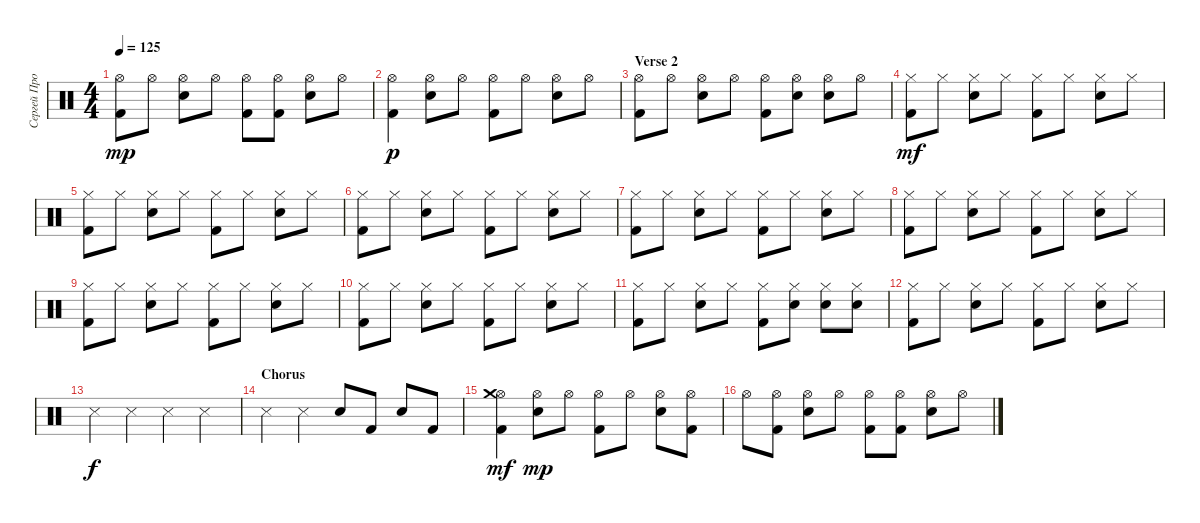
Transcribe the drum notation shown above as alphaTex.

\track ("Сергей Прокофьев (Percussion)" "Сергей Про") {instrument percussion}
\staff {score}
\articulation defaults
\ts (4 4)
\tempo 125
\clef neutral
\ks c
("Hi-Hat (open)" "Kick (hit) 2").8{dy mp} "Hi-Hat (open)".8 ("Hi-Hat (open)" "Snare (hit) 2").8 "Hi-Hat (open)".8 ("Hi-Hat (open)" "Kick (hit) 2").8 ("Hi-Hat (open)" "Kick (hit) 2").8 ("Hi-Hat (open)" "Snare (hit) 2").8 "Hi-Hat (open)".8 |
("Hi-Hat (open)" "Kick (hit) 2").4{dy p} ("Hi-Hat (open)" "Snare (hit) 2").8 "Hi-Hat (open)".8 ("Hi-Hat (open)" "Kick (hit) 2").8 "Hi-Hat (open)".8 ("Hi-Hat (open)" "Snare (hit) 2").8 "Hi-Hat (open)".8 |
\section ("" "Verse 2")
("Hi-Hat (open)" "Kick (hit) 2").8 "Hi-Hat (open)".8 ("Hi-Hat (open)" "Snare (hit) 2").8 "Hi-Hat (open)".8 ("Hi-Hat (open)" "Kick (hit) 2").8 ("Hi-Hat (open)" "Snare (hit) 2").8 ("Hi-Hat (open)" "Snare (hit) 2").8 "Hi-Hat (open)".8 |
("Hi-Hat (closed)" "Kick (hit) 2").8{dy mf} "Hi-Hat (closed)".8 ("Hi-Hat (closed)" "Snare (hit) 2").8 "Hi-Hat (closed)".8 ("Hi-Hat (closed)" "Kick (hit) 2").8 "Hi-Hat (closed)".8 ("Hi-Hat (closed)" "Snare (hit) 2").8 "Hi-Hat (closed)".8 |
("Hi-Hat (closed)" "Kick (hit) 2").8 "Hi-Hat (closed)".8 ("Hi-Hat (closed)" "Snare (hit) 2").8 "Hi-Hat (closed)".8 ("Hi-Hat (closed)" "Kick (hit) 2").8 "Hi-Hat (closed)".8 ("Hi-Hat (closed)" "Snare (hit) 2").8 "Hi-Hat (closed)".8 |
("Hi-Hat (closed)" "Kick (hit) 2").8 "Hi-Hat (closed)".8 ("Hi-Hat (closed)" "Snare (hit) 2").8 "Hi-Hat (closed)".8 ("Hi-Hat (closed)" "Kick (hit) 2").8 "Hi-Hat (closed)".8 ("Hi-Hat (closed)" "Snare (hit) 2").8 "Hi-Hat (closed)".8 |
("Hi-Hat (closed)" "Kick (hit) 2").8 "Hi-Hat (closed)".8 ("Hi-Hat (closed)" "Snare (hit) 2").8 "Hi-Hat (closed)".8 ("Hi-Hat (closed)" "Kick (hit) 2").8 "Hi-Hat (closed)".8 ("Hi-Hat (closed)" "Snare (hit) 2").8 "Hi-Hat (closed)".8 |
("Hi-Hat (closed)" "Kick (hit) 2").8 "Hi-Hat (closed)".8 ("Hi-Hat (closed)" "Snare (hit) 2").8 "Hi-Hat (closed)".8 ("Hi-Hat (closed)" "Kick (hit) 2").8 "Hi-Hat (closed)".8 ("Hi-Hat (closed)" "Snare (hit) 2").8 "Hi-Hat (closed)".8 |
("Hi-Hat (closed)" "Kick (hit) 2").8 "Hi-Hat (closed)".8 ("Hi-Hat (closed)" "Snare (hit) 2").8 "Hi-Hat (closed)".8 ("Hi-Hat (closed)" "Kick (hit) 2").8 "Hi-Hat (closed)".8 ("Hi-Hat (closed)" "Snare (hit) 2").8 "Hi-Hat (closed)".8 |
("Hi-Hat (closed)" "Kick (hit) 2").8 "Hi-Hat (closed)".8 ("Hi-Hat (closed)" "Snare (hit) 2").8 "Hi-Hat (closed)".8 ("Hi-Hat (closed)" "Kick (hit) 2").8 "Hi-Hat (closed)".8 ("Hi-Hat (closed)" "Snare (hit) 2").8 "Hi-Hat (closed)".8 |
("Hi-Hat (closed)" "Kick (hit) 2").8 "Hi-Hat (closed)".8 ("Hi-Hat (closed)" "Snare (hit) 2").8 "Hi-Hat (closed)".8 ("Hi-Hat (closed)" "Kick (hit) 2").8 ("Hi-Hat (closed)" "Snare (hit) 2").8 ("Hi-Hat (closed)" "Snare (hit) 2").8 ("Hi-Hat (closed)" "Snare (hit) 2").8 |
("Hi-Hat (closed)" "Kick (hit) 2").8 "Hi-Hat (closed)".8 ("Hi-Hat (closed)" "Snare (hit) 2").8 "Hi-Hat (closed)".8 ("Hi-Hat (closed)" "Kick (hit) 2").8 "Hi-Hat (closed)".8 ("Hi-Hat (closed)" "Snare (hit) 2").8 "Hi-Hat (closed)".8 |
"Snare (side stick) 3".4{dy f} "Snare (side stick) 3".4 "Snare (side stick) 3".4 "Snare (side stick) 3".4 |
\section ("" "Chorus")
"Snare (side stick) 3".4 "Snare (side stick) 3".4 "Snare (hit) 2".8 "Kick (hit) 2".8 "Snare (hit) 2".8 "Kick (hit) 2".8 |
("Hi-Hat (open)" "Crash medium (hit)" "Kick (hit) 2").4{dy mf} ("Hi-Hat (open)" "Snare (hit) 2").8{dy mp} "Hi-Hat (open)".8 ("Hi-Hat (open)" "Kick (hit) 2").8 "Hi-Hat (open)".8 ("Hi-Hat (open)" "Snare (hit) 2").8 ("Hi-Hat (open)" "Kick (hit) 2").8 |
"Hi-Hat (open)".8 ("Hi-Hat (open)" "Kick (hit) 2").8 ("Hi-Hat (open)" "Snare (hit) 2").8 "Hi-Hat (open)".8 ("Hi-Hat (open)" "Kick (hit) 2").8 ("Hi-Hat (open)" "Kick (hit) 2").8 ("Hi-Hat (open)" "Snare (hit) 2").8 "Hi-Hat (open)".8
